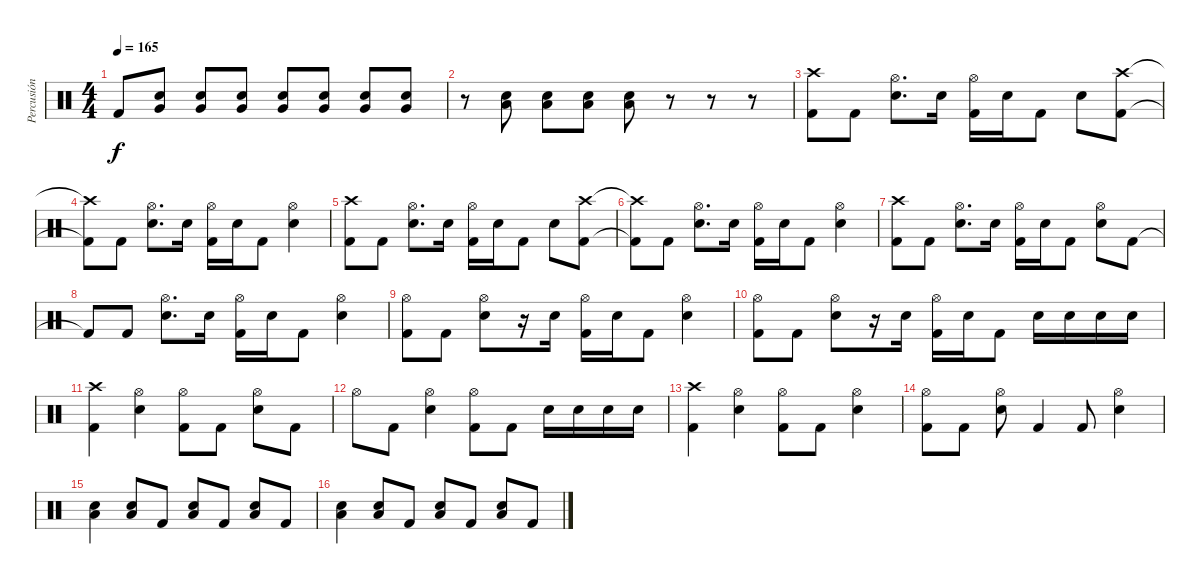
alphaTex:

\track ("Percusión" "Percusión") {instrument percussion}
\staff {score}
\articulation defaults
\ts (4 4)
\tempo 165
\clef neutral
\ks c "Kick (hit) 2".8{dy f}
("Very Low Tom (hit)" "Electric Snare (hit)").8{volume 13} ("Very Low Tom (hit)" "Electric Snare (hit)").8 ("Very Low Tom (hit)" "Electric Snare (hit)").8{volume 14} ("Very Low Tom (hit)" "Electric Snare (hit)").8 ("Very Low Tom (hit)" "Electric Snare (hit)").8{volume 15} ("Very Low Tom (hit)" "Electric Snare (hit)").8 ("Very Low Tom (hit)" "Electric Snare (hit)").8 |
r.8 ("Low Tom (hit)" "Electric Snare (hit)").8{volume 16} ("Low Tom (hit)" "Electric Snare (hit)").8 ("Low Tom (hit)" "Electric Snare (hit)").8 ("Low Tom (hit)" "Electric Snare (hit)").8 r.8 r.8 r.8 |
("Crash high (hit)" "Kick (hit) 2").8 "Kick (hit) 2".8 ("Hi-Hat (open)" "Electric Snare (hit)").8{d} "Electric Snare (hit)".16 ("Hi-Hat (open)" "Kick (hit) 2").16 "Electric Snare (hit)".16 "Kick (hit) 2".8 "Electric Snare (hit)".8 ("Crash high (hit)" "Kick (hit) 2").8 |
("Crash high (hit)"{t} "Kick (hit) 2"{t}).8 "Kick (hit) 2".8 ("Hi-Hat (open)" "Electric Snare (hit)").8{d} "Electric Snare (hit)".16 ("Hi-Hat (open)" "Kick (hit) 2").16 "Electric Snare (hit)".16 "Kick (hit) 2".8 ("Hi-Hat (open)" "Electric Snare (hit)").4 |
("Crash high (hit)" "Kick (hit) 2").8 "Kick (hit) 2".8 ("Hi-Hat (open)" "Electric Snare (hit)").8{d} "Electric Snare (hit)".16 ("Hi-Hat (open)" "Kick (hit) 2").16 "Electric Snare (hit)".16 "Kick (hit) 2".8 "Electric Snare (hit)".8 ("Crash high (hit)" "Kick (hit) 2").8 |
("Crash high (hit)"{t} "Kick (hit) 2"{t}).8 "Kick (hit) 2".8 ("Hi-Hat (open)" "Electric Snare (hit)").8{d} "Electric Snare (hit)".16 ("Hi-Hat (open)" "Kick (hit) 2").16 "Electric Snare (hit)".16 "Kick (hit) 2".8 ("Hi-Hat (open)" "Electric Snare (hit)").4 |
("Crash high (hit)" "Kick (hit) 2").8 "Kick (hit) 2".8 ("Hi-Hat (open)" "Electric Snare (hit)").8{d} "Electric Snare (hit)".16 ("Hi-Hat (open)" "Kick (hit) 2").16 "Electric Snare (hit)".16 "Kick (hit) 2".8 ("Hi-Hat (open)" "Electric Snare (hit)").8 "Kick (hit) 2".8 |
"Kick (hit) 2"{t}.8 "Kick (hit) 2".8 ("Hi-Hat (open)" "Electric Snare (hit)").8{d} "Electric Snare (hit)".16 ("Hi-Hat (open)" "Kick (hit) 2").16 "Electric Snare (hit)".16 "Kick (hit) 2".8 ("Hi-Hat (open)" "Electric Snare (hit)").4 |
("Hi-Hat (open)" "Kick (hit) 2").8 "Kick (hit) 2".8 ("Hi-Hat (open)" "Electric Snare (hit)").8 r.16 "Electric Snare (hit)".16 ("Hi-Hat (open)" "Kick (hit) 2").16 "Electric Snare (hit)".16 "Kick (hit) 2".8 ("Hi-Hat (open)" "Electric Snare (hit)").4 |
("Hi-Hat (open)" "Kick (hit) 2").8 "Kick (hit) 2".8 ("Hi-Hat (open)" "Electric Snare (hit)").8 r.16 "Electric Snare (hit)".16 ("Hi-Hat (open)" "Kick (hit) 2").16 "Electric Snare (hit)".16 "Kick (hit) 2".8 "Electric Snare (hit)".16 "Electric Snare (hit)".16 "Electric Snare (hit)".16 "Electric Snare (hit)".16 |
("Crash high (hit)" "Kick (hit) 2").4 ("Hi-Hat (open)" "Electric Snare (hit)").4 ("Hi-Hat (open)" "Kick (hit) 2").8 "Kick (hit) 2".8 ("Hi-Hat (open)" "Electric Snare (hit)").8 "Kick (hit) 2".8 |
"Hi-Hat (open)".8 "Kick (hit) 2".8 ("Hi-Hat (open)" "Electric Snare (hit)").4 ("Hi-Hat (open)" "Kick (hit) 2").8 "Kick (hit) 2".8 "Electric Snare (hit)".16 "Electric Snare (hit)".16 "Electric Snare (hit)".16 "Electric Snare (hit)".16 |
("Crash high (hit)" "Kick (hit) 2").4 ("Hi-Hat (open)" "Electric Snare (hit)").4 ("Hi-Hat (open)" "Kick (hit) 2").8 "Kick (hit) 2".8 ("Hi-Hat (open)" "Electric Snare (hit)").4 |
("Hi-Hat (open)" "Kick (hit) 2").8 "Kick (hit) 2".8 ("Hi-Hat (open)" "Electric Snare (hit)").8 "Kick (hit) 2".4 "Kick (hit) 2".8 ("Hi-Hat (open)" "Electric Snare (hit)").4 |
("Low Tom (hit)" "Electric Snare (hit)").4 ("Low Tom (hit)" "Electric Snare (hit)").8 "Kick (hit) 2".8 ("Low Tom (hit)" "Electric Snare (hit)").8 "Kick (hit) 2".8 ("Low Tom (hit)" "Electric Snare (hit)").8 "Kick (hit) 2".8 |
("Low Tom (hit)" "Electric Snare (hit)").4 ("Low Tom (hit)" "Electric Snare (hit)").8 "Kick (hit) 2".8 ("Low Tom (hit)" "Electric Snare (hit)").8 "Kick (hit) 2".8 ("Low Tom (hit)" "Electric Snare (hit)").8 "Kick (hit) 2".8
